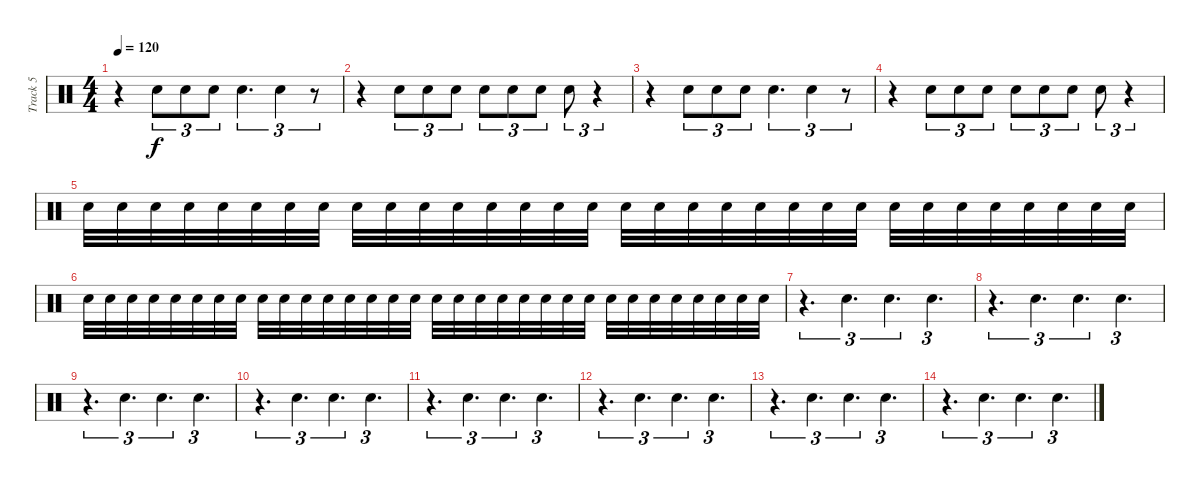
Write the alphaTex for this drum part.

\track ("Track 5" "Track 5") {instrument percussion}
\staff {score}
\articulation defaults
\ts (4 4)
\tempo 120
\clef neutral
\ks c
r.4{dy f} "Electric Snare (hit)".8{tu (3 2)} "Electric Snare (hit)".8{tu (3 2)} "Electric Snare (hit)".8{tu (3 2)} "Electric Snare (hit)".4{d tu (3 2)} "Electric Snare (hit)".4{tu (3 2)} r.8{tu (3 2)} |
r.4 "Electric Snare (hit)".8{tu (3 2)} "Electric Snare (hit)".8{tu (3 2)} "Electric Snare (hit)".8{tu (3 2)} "Electric Snare (hit)".8{tu (3 2)} "Electric Snare (hit)".8{tu (3 2)} "Electric Snare (hit)".8{tu (3 2)} "Electric Snare (hit)".8{tu (3 2)} r.4{tu (3 2)} |
r.4 "Electric Snare (hit)".8{tu (3 2)} "Electric Snare (hit)".8{tu (3 2)} "Electric Snare (hit)".8{tu (3 2)} "Electric Snare (hit)".4{d tu (3 2)} "Electric Snare (hit)".4{tu (3 2)} r.8{tu (3 2)} |
r.4 "Electric Snare (hit)".8{tu (3 2)} "Electric Snare (hit)".8{tu (3 2)} "Electric Snare (hit)".8{tu (3 2)} "Electric Snare (hit)".8{tu (3 2)} "Electric Snare (hit)".8{tu (3 2)} "Electric Snare (hit)".8{tu (3 2)} "Electric Snare (hit)".8{tu (3 2)} r.4{tu (3 2)} |
"Electric Snare (hit)".32 "Electric Snare (hit)".32 "Electric Snare (hit)".32 "Electric Snare (hit)".32 "Electric Snare (hit)".32 "Electric Snare (hit)".32 "Electric Snare (hit)".32 "Electric Snare (hit)".32 "Electric Snare (hit)".32 "Electric Snare (hit)".32 "Electric Snare (hit)".32 "Electric Snare (hit)".32 "Electric Snare (hit)".32 "Electric Snare (hit)".32 "Electric Snare (hit)".32 "Electric Snare (hit)".32 "Electric Snare (hit)".32 "Electric Snare (hit)".32 "Electric Snare (hit)".32 "Electric Snare (hit)".32 "Electric Snare (hit)".32 "Electric Snare (hit)".32 "Electric Snare (hit)".32 "Electric Snare (hit)".32 "Electric Snare (hit)".32 "Electric Snare (hit)".32 "Electric Snare (hit)".32 "Electric Snare (hit)".32 "Electric Snare (hit)".32 "Electric Snare (hit)".32 "Electric Snare (hit)".32 "Electric Snare (hit)".32 |
"Electric Snare (hit)".32 "Electric Snare (hit)".32 "Electric Snare (hit)".32 "Electric Snare (hit)".32 "Electric Snare (hit)".32 "Electric Snare (hit)".32 "Electric Snare (hit)".32 "Electric Snare (hit)".32 "Electric Snare (hit)".32 "Electric Snare (hit)".32 "Electric Snare (hit)".32 "Electric Snare (hit)".32 "Electric Snare (hit)".32 "Electric Snare (hit)".32 "Electric Snare (hit)".32 "Electric Snare (hit)".32 "Electric Snare (hit)".32 "Electric Snare (hit)".32 "Electric Snare (hit)".32 "Electric Snare (hit)".32 "Electric Snare (hit)".32 "Electric Snare (hit)".32 "Electric Snare (hit)".32 "Electric Snare (hit)".32 "Electric Snare (hit)".32 "Electric Snare (hit)".32 "Electric Snare (hit)".32 "Electric Snare (hit)".32 "Electric Snare (hit)".32 "Electric Snare (hit)".32 "Electric Snare (hit)".32 "Electric Snare (hit)".32 |
r.4{d tu (3 2)} "Electric Snare (hit)".4{d tu (3 2)} "Electric Snare (hit)".4{d tu (3 2)} "Electric Snare (hit)".4{d tu (3 2)} |
r.4{d tu (3 2)} "Electric Snare (hit)".4{d tu (3 2)} "Electric Snare (hit)".4{d tu (3 2)} "Electric Snare (hit)".4{d tu (3 2)} |
r.4{d tu (3 2)} "Electric Snare (hit)".4{d tu (3 2)} "Electric Snare (hit)".4{d tu (3 2)} "Electric Snare (hit)".4{d tu (3 2)} |
r.4{d tu (3 2)} "Electric Snare (hit)".4{d tu (3 2)} "Electric Snare (hit)".4{d tu (3 2)} "Electric Snare (hit)".4{d tu (3 2)} |
r.4{d tu (3 2)} "Electric Snare (hit)".4{d tu (3 2)} "Electric Snare (hit)".4{d tu (3 2)} "Electric Snare (hit)".4{d tu (3 2)} |
r.4{d tu (3 2)} "Electric Snare (hit)".4{d tu (3 2)} "Electric Snare (hit)".4{d tu (3 2)} "Electric Snare (hit)".4{d tu (3 2)} |
r.4{d tu (3 2)} "Electric Snare (hit)".4{d tu (3 2)} "Electric Snare (hit)".4{d tu (3 2)} "Electric Snare (hit)".4{d tu (3 2)} |
r.4{d tu (3 2)} "Electric Snare (hit)".4{d tu (3 2)} "Electric Snare (hit)".4{d tu (3 2)} "Electric Snare (hit)".4{d tu (3 2)}
